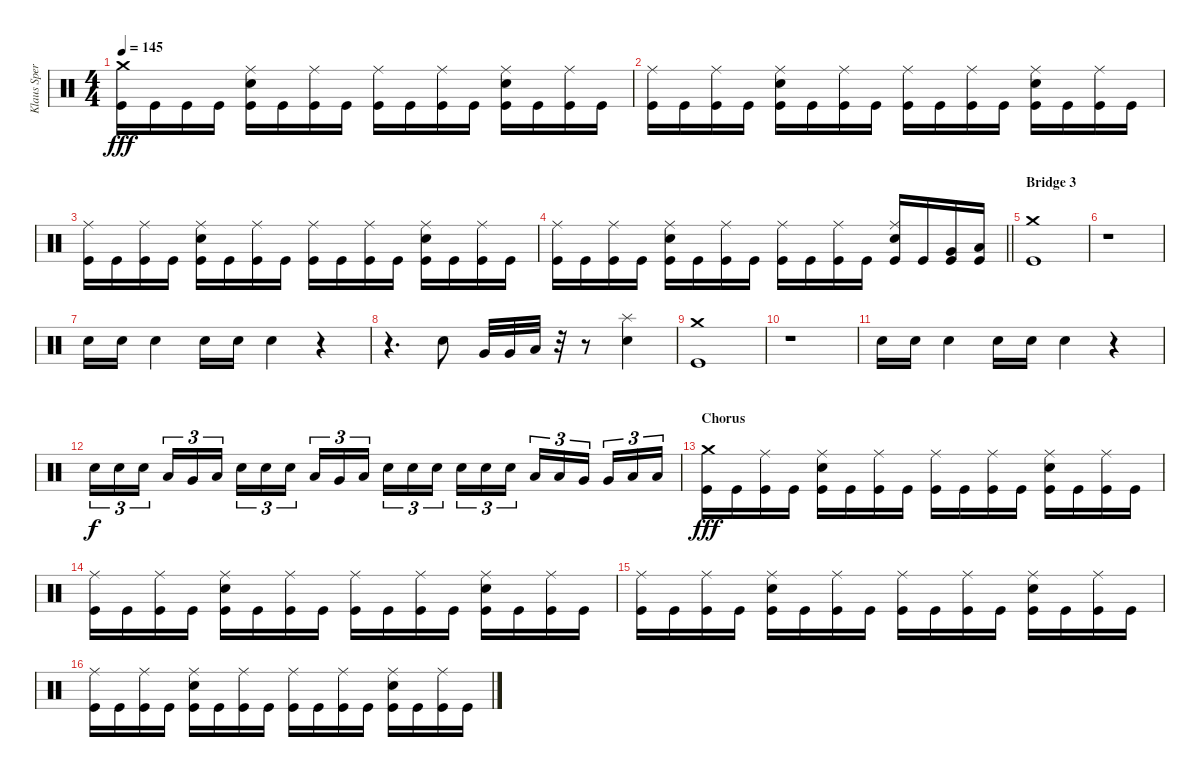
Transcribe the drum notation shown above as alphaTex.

\track ("Klaus Sperling" "Klaus Sper") {instrument percussion}
\staff {score}
\articulation defaults
\ts (4 4)
\tempo 145
\clef neutral
\ks c
("Crash medium (hit)" "Kick (hit)").16{dy fff} "Kick (hit)".16 "Kick (hit)".16 "Kick (hit)".16 ("Ride (middle)" "Electric Snare (hit)" "Kick (hit)").16 "Kick (hit)".16 ("Ride (middle)" "Kick (hit)").16 "Kick (hit)".16 ("Ride (middle)" "Kick (hit)").16 "Kick (hit)".16 ("Ride (middle)" "Kick (hit)").16 "Kick (hit)".16 ("Ride (middle)" "Electric Snare (hit)" "Kick (hit)").16 "Kick (hit)".16 ("Ride (middle)" "Kick (hit)").16 "Kick (hit)".16 |
("Ride (middle)" "Kick (hit)").16 "Kick (hit)".16 ("Ride (middle)" "Kick (hit)").16 "Kick (hit)".16 ("Ride (middle)" "Electric Snare (hit)" "Kick (hit)").16 "Kick (hit)".16 ("Ride (middle)" "Kick (hit)").16 "Kick (hit)".16 ("Ride (middle)" "Kick (hit)").16 "Kick (hit)".16 ("Ride (middle)" "Kick (hit)").16 "Kick (hit)".16 ("Ride (middle)" "Electric Snare (hit)" "Kick (hit)").16 "Kick (hit)".16 ("Ride (middle)" "Kick (hit)").16 "Kick (hit)".16 |
("Ride (middle)" "Kick (hit)").16 "Kick (hit)".16 ("Ride (middle)" "Kick (hit)").16 "Kick (hit)".16 ("Ride (middle)" "Electric Snare (hit)" "Kick (hit)").16 "Kick (hit)".16 ("Ride (middle)" "Kick (hit)").16 "Kick (hit)".16 ("Ride (middle)" "Kick (hit)").16 "Kick (hit)".16 ("Ride (middle)" "Kick (hit)").16 "Kick (hit)".16 ("Ride (middle)" "Electric Snare (hit)" "Kick (hit)").16 "Kick (hit)".16 ("Ride (middle)" "Kick (hit)").16 "Kick (hit)".16 |
\barLineRight lightlight
("Ride (middle)" "Kick (hit)").16 "Kick (hit)".16 ("Ride (middle)" "Kick (hit)").16 "Kick (hit)".16 ("Ride (middle)" "Electric Snare (hit)" "Kick (hit)").16 "Kick (hit)".16 ("Ride (middle)" "Kick (hit)").16 "Kick (hit)".16 ("Ride (middle)" "Kick (hit)").16 "Kick (hit)".16 ("Ride (middle)" "Kick (hit)").16 "Kick (hit)".16 ("Ride (middle)" "Electric Snare (hit)" "Kick (hit)").16 "Kick (hit)".16 ("Very Low Tom (hit)" "Kick (hit)").16 ("Low Floor Tom (hit)" "Kick (hit)").16 |
\section ("" "Bridge 3")
("Crash medium (hit)" "Kick (hit)").1 |
r.1 |
"Electric Snare (hit)".16 "Electric Snare (hit)".16 "Electric Snare (hit)".4 "Electric Snare (hit)".16 "Electric Snare (hit)".16 "Electric Snare (hit)".4 r.4 |
r.4{d} "Electric Snare (hit)".8 "Very Low Tom (hit)".32 "Very Low Tom (hit)".32 "Low Floor Tom (hit)".32 r.32 r.8 ("Splash (hit)" "Electric Snare (hit)").4 |
("Crash medium (hit)" "Kick (hit)").1 |
r.1 |
"Electric Snare (hit)".16 "Electric Snare (hit)".16 "Electric Snare (hit)".4 "Electric Snare (hit)".16 "Electric Snare (hit)".16 "Electric Snare (hit)".4 r.4 |
"Electric Snare (hit)".16{tu (3 2) dy f} "Electric Snare (hit)".16{tu (3 2)} "Electric Snare (hit)".16{tu (3 2) beam splitsecondary} "Low Tom (hit)".16{tu (3 2)} "Very Low Tom (hit)".16{tu (3 2)} "Low Floor Tom (hit)".16{tu (3 2)} "Electric Snare (hit)".16{tu (3 2)} "Electric Snare (hit)".16{tu (3 2)} "Electric Snare (hit)".16{tu (3 2) beam splitsecondary} "Low Tom (hit)".16{tu (3 2)} "Very Low Tom (hit)".16{tu (3 2)} "Low Floor Tom (hit)".16{tu (3 2)} "Electric Snare (hit)".16{tu (3 2)} "Electric Snare (hit)".16{tu (3 2)} "Electric Snare (hit)".16{tu (3 2) beam splitsecondary} "Electric Snare (hit)".16{tu (3 2)} "Electric Snare (hit)".16{tu (3 2)} "Electric Snare (hit)".16{tu (3 2)} "Low Tom (hit)".16{tu (3 2)} "Low Tom (hit)".16{tu (3 2)} "Very Low Tom (hit)".16{tu (3 2) beam splitsecondary} "Very Low Tom (hit)".16{tu (3 2)} "Low Floor Tom (hit)".16{tu (3 2)} "Low Floor Tom (hit)".16{tu (3 2)} |
\section ("" "Chorus")
("Crash medium (hit)" "Kick (hit)").16{dy fff} "Kick (hit)".16 ("Ride (middle)" "Kick (hit)").16 "Kick (hit)".16 ("Ride (middle)" "Electric Snare (hit)" "Kick (hit)").16 "Kick (hit)".16 ("Ride (middle)" "Kick (hit)").16 "Kick (hit)".16 ("Ride (middle)" "Kick (hit)").16 "Kick (hit)".16 ("Ride (middle)" "Kick (hit)").16 "Kick (hit)".16 ("Ride (middle)" "Electric Snare (hit)" "Kick (hit)").16 "Kick (hit)".16 ("Ride (middle)" "Kick (hit)").16 "Kick (hit)".16 |
("Ride (middle)" "Kick (hit)").16 "Kick (hit)".16 ("Ride (middle)" "Kick (hit)").16 "Kick (hit)".16 ("Ride (middle)" "Electric Snare (hit)" "Kick (hit)").16 "Kick (hit)".16 ("Ride (middle)" "Kick (hit)").16 "Kick (hit)".16 ("Ride (middle)" "Kick (hit)").16 "Kick (hit)".16 ("Ride (middle)" "Kick (hit)").16 "Kick (hit)".16 ("Ride (middle)" "Electric Snare (hit)" "Kick (hit)").16 "Kick (hit)".16 ("Ride (middle)" "Kick (hit)").16 "Kick (hit)".16 |
("Ride (middle)" "Kick (hit)").16 "Kick (hit)".16 ("Ride (middle)" "Kick (hit)").16 "Kick (hit)".16 ("Ride (middle)" "Electric Snare (hit)" "Kick (hit)").16 "Kick (hit)".16 ("Ride (middle)" "Kick (hit)").16 "Kick (hit)".16 ("Ride (middle)" "Kick (hit)").16 "Kick (hit)".16 ("Ride (middle)" "Kick (hit)").16 "Kick (hit)".16 ("Ride (middle)" "Electric Snare (hit)" "Kick (hit)").16 "Kick (hit)".16 ("Ride (middle)" "Kick (hit)").16 "Kick (hit)".16 |
("Ride (middle)" "Kick (hit)").16 "Kick (hit)".16 ("Ride (middle)" "Kick (hit)").16 "Kick (hit)".16 ("Ride (middle)" "Electric Snare (hit)" "Kick (hit)").16 "Kick (hit)".16 ("Ride (middle)" "Kick (hit)").16 "Kick (hit)".16 ("Ride (middle)" "Kick (hit)").16 "Kick (hit)".16 ("Ride (middle)" "Kick (hit)").16 "Kick (hit)".16 ("Ride (middle)" "Electric Snare (hit)" "Kick (hit)").16 "Kick (hit)".16 ("Ride (middle)" "Kick (hit)").16 "Kick (hit)".16
